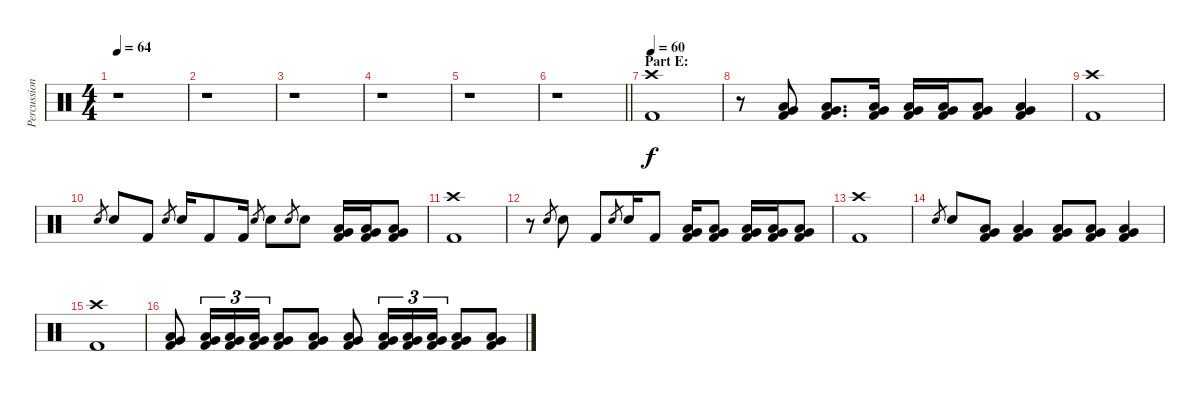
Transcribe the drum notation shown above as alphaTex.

\track ("Percussion" "Percussion") {instrument percussion}
\staff {score}
\articulation defaults
\ts (4 4)
\tempo 64
\clef neutral
\ks c
r.1{dy f} |
r.1 |
r.1 |
r.1 |
r.1 |
\barLineRight lightlight
r.1 |
\section ("" "Part E:")
\tempo 60
("Crash high (hit)" "Kick (hit) 2").1 |
r.8 ("Very Low Tom (hit)" "Low Tom (hit)" "Kick (hit) 2").8 ("Very Low Tom (hit)" "Low Tom (hit)" "Kick (hit) 2").8{d} ("Very Low Tom (hit)" "Low Tom (hit)" "Kick (hit) 2").16 ("Very Low Tom (hit)" "Low Tom (hit)" "Kick (hit) 2").16 ("Very Low Tom (hit)" "Low Tom (hit)" "Kick (hit) 2").16 ("Very Low Tom (hit)" "Low Tom (hit)" "Kick (hit) 2").8 ("Very Low Tom (hit)" "Low Tom (hit)" "Kick (hit) 2").4 |
("Crash high (hit)" "Kick (hit) 2").1 |
"Snare (hit) 2".8{gr} "Snare (hit) 2".8 "Kick (hit) 2".8 "Snare (hit) 2".8{gr} "Snare (hit) 2".16 "Kick (hit) 2".8 "Kick (hit) 2".16 "Snare (hit) 2".8{gr} "Snare (hit) 2".8 "Snare (hit) 2".8{gr} "Snare (hit) 2".8 ("Very Low Tom (hit)" "Low Tom (hit)" "Kick (hit) 2").16 ("Very Low Tom (hit)" "Low Tom (hit)" "Kick (hit) 2").16 ("Very Low Tom (hit)" "Low Tom (hit)" "Kick (hit) 2").8 |
("Crash high (hit)" "Kick (hit) 2").1 |
r.8 "Snare (hit) 2".8{gr} "Snare (hit) 2".8 "Kick (hit) 2".8 "Snare (hit) 2".8{gr} "Snare (hit) 2".16 "Kick (hit) 2".8 ("Very Low Tom (hit)" "Low Tom (hit)" "Kick (hit) 2").16 ("Very Low Tom (hit)" "Low Tom (hit)" "Kick (hit) 2").8 ("Very Low Tom (hit)" "Low Tom (hit)" "Kick (hit) 2").16 ("Very Low Tom (hit)" "Low Tom (hit)" "Kick (hit) 2").16 ("Very Low Tom (hit)" "Low Tom (hit)" "Kick (hit) 2").8 |
("Crash high (hit)" "Kick (hit) 2").1 |
"Snare (hit) 2".8{gr} "Snare (hit) 2".8 ("Very Low Tom (hit)" "Low Tom (hit)" "Kick (hit) 2").8 ("Very Low Tom (hit)" "Low Tom (hit)" "Kick (hit) 2").4 ("Very Low Tom (hit)" "Low Tom (hit)" "Kick (hit) 2").8 ("Very Low Tom (hit)" "Low Tom (hit)" "Kick (hit) 2").8 ("Very Low Tom (hit)" "Low Tom (hit)" "Kick (hit) 2").4 |
("Crash high (hit)" "Kick (hit) 2").1 |
("Very Low Tom (hit)" "Low Tom (hit)" "Kick (hit) 2").8 ("Very Low Tom (hit)" "Low Tom (hit)" "Kick (hit) 2").16{tu (3 2)} ("Very Low Tom (hit)" "Low Tom (hit)" "Kick (hit) 2").16{tu (3 2)} ("Very Low Tom (hit)" "Low Tom (hit)" "Kick (hit) 2").16{tu (3 2)} ("Very Low Tom (hit)" "Low Tom (hit)" "Kick (hit) 2").8 ("Very Low Tom (hit)" "Low Tom (hit)" "Kick (hit) 2").8 ("Very Low Tom (hit)" "Low Tom (hit)" "Kick (hit) 2").8 ("Very Low Tom (hit)" "Low Tom (hit)" "Kick (hit) 2").16{tu (3 2)} ("Very Low Tom (hit)" "Low Tom (hit)" "Kick (hit) 2").16{tu (3 2)} ("Very Low Tom (hit)" "Low Tom (hit)" "Kick (hit) 2").16{tu (3 2)} ("Very Low Tom (hit)" "Low Tom (hit)" "Kick (hit) 2").8 ("Very Low Tom (hit)" "Low Tom (hit)" "Kick (hit) 2").8
